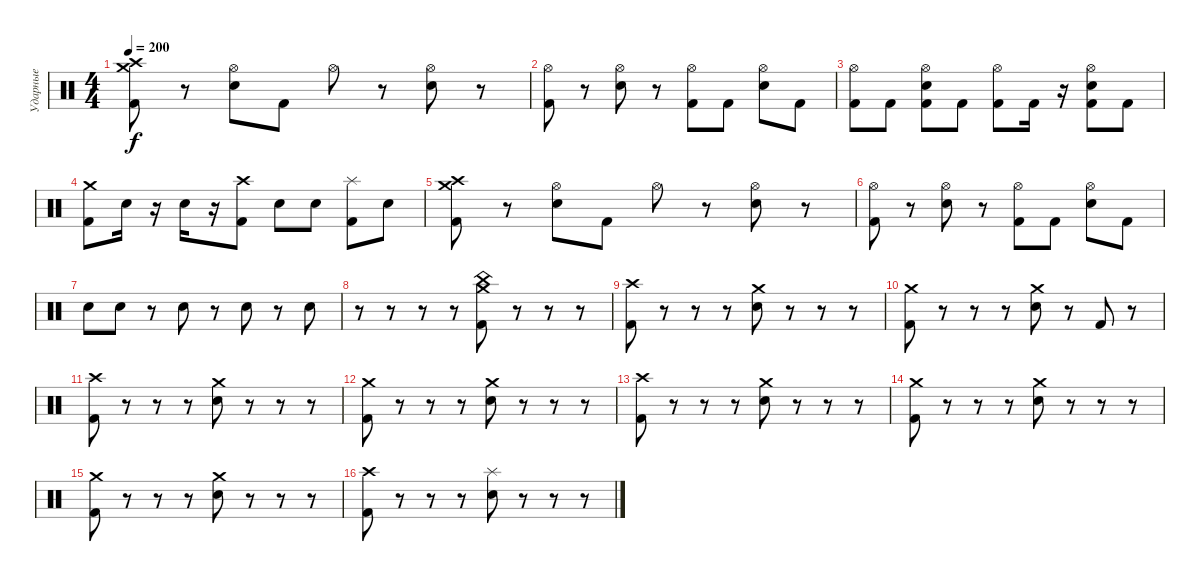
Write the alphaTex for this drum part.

\track ("Ударные" "Ударные") {instrument percussion}
\staff {score}
\articulation defaults
\ts (4 4)
\tempo 200
\clef neutral
\ks c
("Kick (hit) 2" "Crash high (hit)" "Crash medium (hit)").8{dy f} r.8 ("Electric Snare (hit)" "Hi-Hat (open)").8 "Kick (hit) 2".8 "Hi-Hat (open)".8 r.8 ("Electric Snare (hit)" "Hi-Hat (open)").8 r.8 |
("Kick (hit) 2" "Hi-Hat (open)").8 r.8 ("Electric Snare (hit)" "Hi-Hat (open)").8 r.8 ("Kick (hit) 2" "Hi-Hat (open)").8 "Kick (hit) 2".8 ("Electric Snare (hit)" "Hi-Hat (open)").8 "Kick (hit) 2".8 |
("Kick (hit) 2" "Hi-Hat (open)").8 "Kick (hit) 2".8 ("Kick (hit) 2" "Electric Snare (hit)" "Hi-Hat (open)").8 "Kick (hit) 2".8 ("Kick (hit) 2" "Hi-Hat (open)").8 "Kick (hit) 2".16 r.16 ("Kick (hit) 2" "Electric Snare (hit)" "Hi-Hat (open)").8 "Kick (hit) 2".8 |
("Kick (hit) 2" "Crash medium (hit)").8 "Electric Snare (hit)".16 r.16 "Electric Snare (hit)".16 r.16 ("Kick (hit) 2" "Crash high (hit)").8 "Electric Snare (hit)".8 "Electric Snare (hit)".8 ("Kick (hit) 2" "Splash (hit)").8 "Electric Snare (hit)".8 |
("Kick (hit) 2" "Crash high (hit)" "Crash medium (hit)").8 r.8 ("Electric Snare (hit)" "Hi-Hat (open)").8 "Kick (hit) 2".8 "Hi-Hat (open)".8 r.8 ("Electric Snare (hit)" "Hi-Hat (open)").8 r.8 |
("Kick (hit) 2" "Hi-Hat (open)").8 r.8 ("Electric Snare (hit)" "Hi-Hat (open)").8 r.8 ("Kick (hit) 2" "Hi-Hat (open)").8 "Kick (hit) 2".8 ("Electric Snare (hit)" "Hi-Hat (open)").8 "Kick (hit) 2".8 |
"Electric Snare (hit)".8 "Electric Snare (hit)".8 r.8 "Electric Snare (hit)".8 r.8 "Electric Snare (hit)".8 r.8 "Electric Snare (hit)".8 |
r.8 r.8 r.8 r.8 ("Kick (hit) 2" "China (hit)" "Crash medium (hit)").8 r.8 r.8 r.8 |
("Kick (hit) 2" "Crash high (hit)").8 r.8 r.8 r.8 ("Electric Snare (hit)" "Crash medium (hit)").8 r.8 r.8 r.8 |
("Kick (hit) 2" "Crash medium (hit)").8 r.8 r.8 r.8 ("Electric Snare (hit)" "Crash medium (hit)").8 r.8 "Kick (hit) 2".8 r.8 |
("Kick (hit) 2" "Crash high (hit)").8 r.8 r.8 r.8 ("Electric Snare (hit)" "Crash medium (hit)").8 r.8 r.8 r.8 |
("Kick (hit) 2" "Crash medium (hit)").8 r.8 r.8 r.8 ("Electric Snare (hit)" "Crash medium (hit)").8 r.8 r.8 r.8 |
("Kick (hit) 2" "Crash high (hit)").8 r.8 r.8 r.8 ("Electric Snare (hit)" "Crash medium (hit)").8 r.8 r.8 r.8 |
("Kick (hit) 2" "Crash medium (hit)").8 r.8 r.8 r.8 ("Electric Snare (hit)" "Crash medium (hit)").8 r.8 r.8 r.8 |
("Kick (hit) 2" "Crash medium (hit)").8 r.8 r.8 r.8 ("Electric Snare (hit)" "Crash medium (hit)").8 r.8 r.8 r.8 |
("Kick (hit) 2" "Crash high (hit)").8 r.8 r.8 r.8 ("Electric Snare (hit)" "Splash (hit)").8 r.8 r.8 r.8
